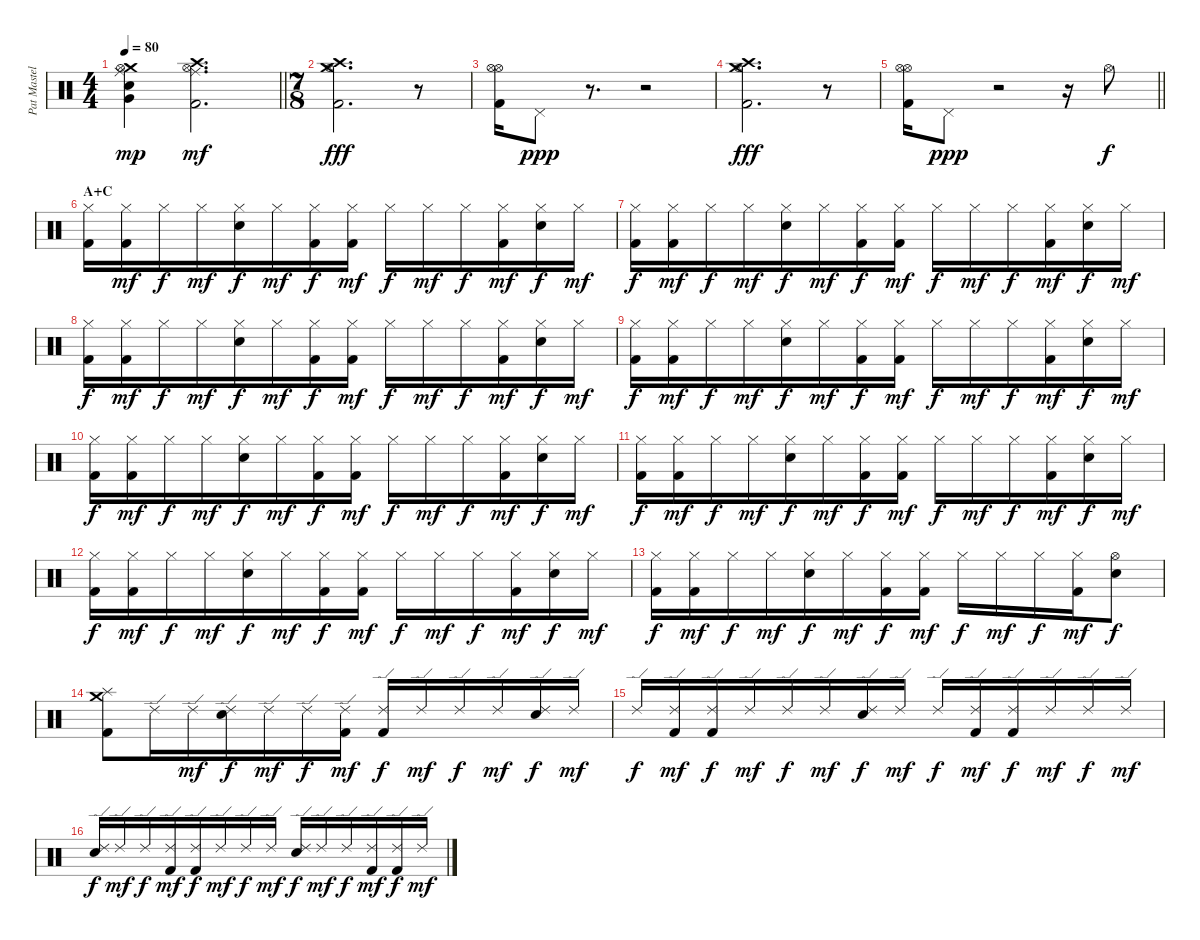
\track ("Pat Mastelotto (Traps / Buttons)" "Pat Mastel") {instrument percussion}
\staff {score}
\articulation defaults
\ts (4 4)
\tempo 80
\clef neutral
\barLineRight lightlight
\ks c
("Crash medium (hit)" "Ride (middle)" "Hi-Hat (open)" "Electric Snare (hit)" "Very Low Tom (hit)").4{dy mp} ("Crash high (hit)" "Ride (middle)" "Hi-Hat (open)" "Kick (hit) 2").2{d dy mf} |
\ts (7 8)
("Crash high (hit)" "Crash medium (hit)" "Hi-Hat (open)" "Kick (hit) 2").2{d dy fff} r.8 |
("Hi-Hat (open)" "Hi-Hat (open)" "Kick (hit) 2").16 "Pedal Hi-Hat (hit)".8{dy ppp} r.8{d} r.2 |
("Crash high (hit)" "Crash medium (hit)" "Hi-Hat (open)" "Kick (hit) 2").2{d dy fff} r.8 |
\barLineRight lightlight
("Hi-Hat (open)" "Hi-Hat (open)" "Kick (hit) 2").16 "Pedal Hi-Hat (hit)".8{dy ppp} r.2 r.16 "Hi-Hat (open)".8{dy f} |
\section ("" "A+C")
("Hi-Hat (closed)" "Kick (hit) 2").16 ("Hi-Hat (closed)" "Kick (hit) 2").16{dy mf} "Hi-Hat (closed)".16{dy f} "Hi-Hat (closed)".16{dy mf} ("Hi-Hat (closed)" "Electric Snare (hit)").16{dy f} "Hi-Hat (closed)".16{dy mf} ("Hi-Hat (closed)" "Kick (hit) 2").16{dy f} ("Hi-Hat (closed)" "Kick (hit) 2").16{dy mf} "Hi-Hat (closed)".16{dy f} "Hi-Hat (closed)".16{dy mf} "Hi-Hat (closed)".16{dy f} ("Hi-Hat (closed)" "Kick (hit) 2").16{dy mf} ("Hi-Hat (closed)" "Electric Snare (hit)").16{dy f} "Hi-Hat (closed)".16{dy mf} |
("Hi-Hat (closed)" "Kick (hit) 2").16{dy f} ("Hi-Hat (closed)" "Kick (hit) 2").16{dy mf} "Hi-Hat (closed)".16{dy f} "Hi-Hat (closed)".16{dy mf} ("Hi-Hat (closed)" "Electric Snare (hit)").16{dy f} "Hi-Hat (closed)".16{dy mf} ("Hi-Hat (closed)" "Kick (hit) 2").16{dy f} ("Hi-Hat (closed)" "Kick (hit) 2").16{dy mf} "Hi-Hat (closed)".16{dy f} "Hi-Hat (closed)".16{dy mf} "Hi-Hat (closed)".16{dy f} ("Hi-Hat (closed)" "Kick (hit) 2").16{dy mf} ("Hi-Hat (closed)" "Electric Snare (hit)").16{dy f} "Hi-Hat (closed)".16{dy mf} |
("Hi-Hat (closed)" "Kick (hit) 2").16{dy f} ("Hi-Hat (closed)" "Kick (hit) 2").16{dy mf} "Hi-Hat (closed)".16{dy f} "Hi-Hat (closed)".16{dy mf} ("Hi-Hat (closed)" "Electric Snare (hit)").16{dy f} "Hi-Hat (closed)".16{dy mf} ("Hi-Hat (closed)" "Kick (hit) 2").16{dy f} ("Hi-Hat (closed)" "Kick (hit) 2").16{dy mf} "Hi-Hat (closed)".16{dy f} "Hi-Hat (closed)".16{dy mf} "Hi-Hat (closed)".16{dy f} ("Hi-Hat (closed)" "Kick (hit) 2").16{dy mf} ("Hi-Hat (closed)" "Electric Snare (hit)").16{dy f} "Hi-Hat (closed)".16{dy mf} |
("Hi-Hat (closed)" "Kick (hit) 2").16{dy f} ("Hi-Hat (closed)" "Kick (hit) 2").16{dy mf} "Hi-Hat (closed)".16{dy f} "Hi-Hat (closed)".16{dy mf} ("Hi-Hat (closed)" "Electric Snare (hit)").16{dy f} "Hi-Hat (closed)".16{dy mf} ("Hi-Hat (closed)" "Kick (hit) 2").16{dy f} ("Hi-Hat (closed)" "Kick (hit) 2").16{dy mf} "Hi-Hat (closed)".16{dy f} "Hi-Hat (closed)".16{dy mf} "Hi-Hat (closed)".16{dy f} ("Hi-Hat (closed)" "Kick (hit) 2").16{dy mf} ("Hi-Hat (closed)" "Electric Snare (hit)").16{dy f} "Hi-Hat (closed)".16{dy mf} |
("Hi-Hat (closed)" "Kick (hit) 2").16{dy f} ("Hi-Hat (closed)" "Kick (hit) 2").16{dy mf} "Hi-Hat (closed)".16{dy f} "Hi-Hat (closed)".16{dy mf} ("Hi-Hat (closed)" "Electric Snare (hit)").16{dy f} "Hi-Hat (closed)".16{dy mf} ("Hi-Hat (closed)" "Kick (hit) 2").16{dy f} ("Hi-Hat (closed)" "Kick (hit) 2").16{dy mf} "Hi-Hat (closed)".16{dy f} "Hi-Hat (closed)".16{dy mf} "Hi-Hat (closed)".16{dy f} ("Hi-Hat (closed)" "Kick (hit) 2").16{dy mf} ("Hi-Hat (closed)" "Electric Snare (hit)").16{dy f} "Hi-Hat (closed)".16{dy mf} |
("Hi-Hat (closed)" "Kick (hit) 2").16{dy f} ("Hi-Hat (closed)" "Kick (hit) 2").16{dy mf} "Hi-Hat (closed)".16{dy f} "Hi-Hat (closed)".16{dy mf} ("Hi-Hat (closed)" "Electric Snare (hit)").16{dy f} "Hi-Hat (closed)".16{dy mf} ("Hi-Hat (closed)" "Kick (hit) 2").16{dy f} ("Hi-Hat (closed)" "Kick (hit) 2").16{dy mf} "Hi-Hat (closed)".16{dy f} "Hi-Hat (closed)".16{dy mf} "Hi-Hat (closed)".16{dy f} ("Hi-Hat (closed)" "Kick (hit) 2").16{dy mf} ("Hi-Hat (closed)" "Electric Snare (hit)").16{dy f} "Hi-Hat (closed)".16{dy mf} |
("Hi-Hat (closed)" "Kick (hit) 2").16{dy f} ("Hi-Hat (closed)" "Kick (hit) 2").16{dy mf} "Hi-Hat (closed)".16{dy f} "Hi-Hat (closed)".16{dy mf} ("Hi-Hat (closed)" "Electric Snare (hit)").16{dy f} "Hi-Hat (closed)".16{dy mf} ("Hi-Hat (closed)" "Kick (hit) 2").16{dy f} ("Hi-Hat (closed)" "Kick (hit) 2").16{dy mf} "Hi-Hat (closed)".16{dy f} "Hi-Hat (closed)".16{dy mf} "Hi-Hat (closed)".16{dy f} ("Hi-Hat (closed)" "Kick (hit) 2").16{dy mf} ("Hi-Hat (closed)" "Electric Snare (hit)").16{dy f} "Hi-Hat (closed)".16{dy mf} |
("Hi-Hat (closed)" "Kick (hit) 2").16{dy f} ("Hi-Hat (closed)" "Kick (hit) 2").16{dy mf} "Hi-Hat (closed)".16{dy f} "Hi-Hat (closed)".16{dy mf} ("Hi-Hat (closed)" "Electric Snare (hit)").16{dy f} "Hi-Hat (closed)".16{dy mf} ("Hi-Hat (closed)" "Kick (hit) 2").16{dy f} ("Hi-Hat (closed)" "Kick (hit) 2").16{dy mf} "Hi-Hat (closed)".16{dy f} "Hi-Hat (closed)".16{dy mf} "Hi-Hat (closed)".16{dy f} ("Hi-Hat (closed)" "Kick (hit) 2").16{dy mf} ("Hi-Hat (open)" "Electric Snare (hit)").8{dy f} |
("Crash medium (hit)" "Splash (hit)" "Kick (hit) 2").8 "Ride (edge) 2".16 "Ride (edge) 2".16{dy mf} ("Ride (edge) 2" "Electric Snare (hit)").16{dy f} "Ride (edge) 2".16{dy mf} "Ride (edge) 2".16{dy f} ("Ride (edge) 2" "Kick (hit) 2").16{dy mf} ("Ride (edge) 2" "Kick (hit) 2").16{dy f} "Ride (edge) 2".16{dy mf} "Ride (edge) 2".16{dy f} "Ride (edge) 2".16{dy mf} ("Ride (edge) 2" "Electric Snare (hit)").16{dy f} "Ride (edge) 2".16{dy mf} |
"Ride (edge) 2".16{dy f} ("Ride (edge) 2" "Kick (hit) 2").16{dy mf} ("Ride (edge) 2" "Kick (hit) 2").16{dy f} "Ride (edge) 2".16{dy mf} "Ride (edge) 2".16{dy f} "Ride (edge) 2".16{dy mf} ("Ride (edge) 2" "Electric Snare (hit)").16{dy f} "Ride (edge) 2".16{dy mf} "Ride (edge) 2".16{dy f} ("Ride (edge) 2" "Kick (hit) 2").16{dy mf} ("Ride (edge) 2" "Kick (hit) 2").16{dy f} "Ride (edge) 2".16{dy mf} "Ride (edge) 2".16{dy f} "Ride (edge) 2".16{dy mf} |
("Ride (edge) 2" "Electric Snare (hit)").16{dy f} "Ride (edge) 2".16{dy mf} "Ride (edge) 2".16{dy f} ("Ride (edge) 2" "Kick (hit) 2").16{dy mf} ("Ride (edge) 2" "Kick (hit) 2").16{dy f} "Ride (edge) 2".16{dy mf} "Ride (edge) 2".16{dy f} "Ride (edge) 2".16{dy mf} ("Ride (edge) 2" "Electric Snare (hit)").16{dy f} "Ride (edge) 2".16{dy mf} "Ride (edge) 2".16{dy f} ("Ride (edge) 2" "Kick (hit) 2").16{dy mf} ("Ride (edge) 2" "Kick (hit) 2").16{dy f} "Ride (edge) 2".16{dy mf}
